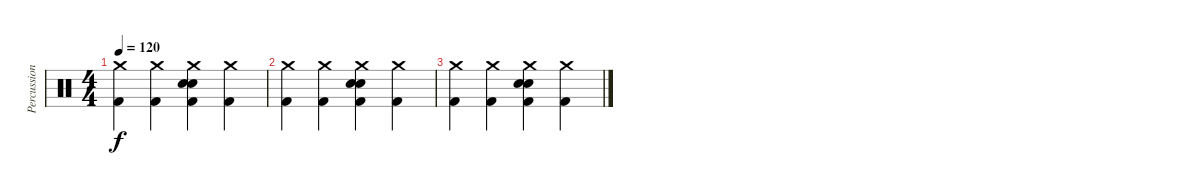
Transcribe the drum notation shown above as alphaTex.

\track ("Percussion" "Percussion") {instrument percussion}
\staff {score}
\articulation defaults
\ts (4 4)
\tempo 120
\clef neutral
\ks c
("Crash medium (hit)" "Kick (hit) 2").4{dy f} ("Crash medium (hit)" "Kick (hit) 2").4 ("Crash medium (hit)" "Snare (hit) 2" "Electric Snare (hit)" "Kick (hit) 2").4 ("Crash medium (hit)" "Kick (hit) 2").4 |
("Crash medium (hit)" "Kick (hit) 2").4 ("Crash medium (hit)" "Kick (hit) 2").4 ("Crash medium (hit)" "Snare (hit) 2" "Electric Snare (hit)" "Kick (hit) 2").4 ("Crash medium (hit)" "Kick (hit) 2").4 |
("Crash medium (hit)" "Kick (hit) 2").4 ("Crash medium (hit)" "Kick (hit) 2").4 ("Crash medium (hit)" "Snare (hit) 2" "Electric Snare (hit)" "Kick (hit) 2").4 ("Crash medium (hit)" "Kick (hit) 2").4
